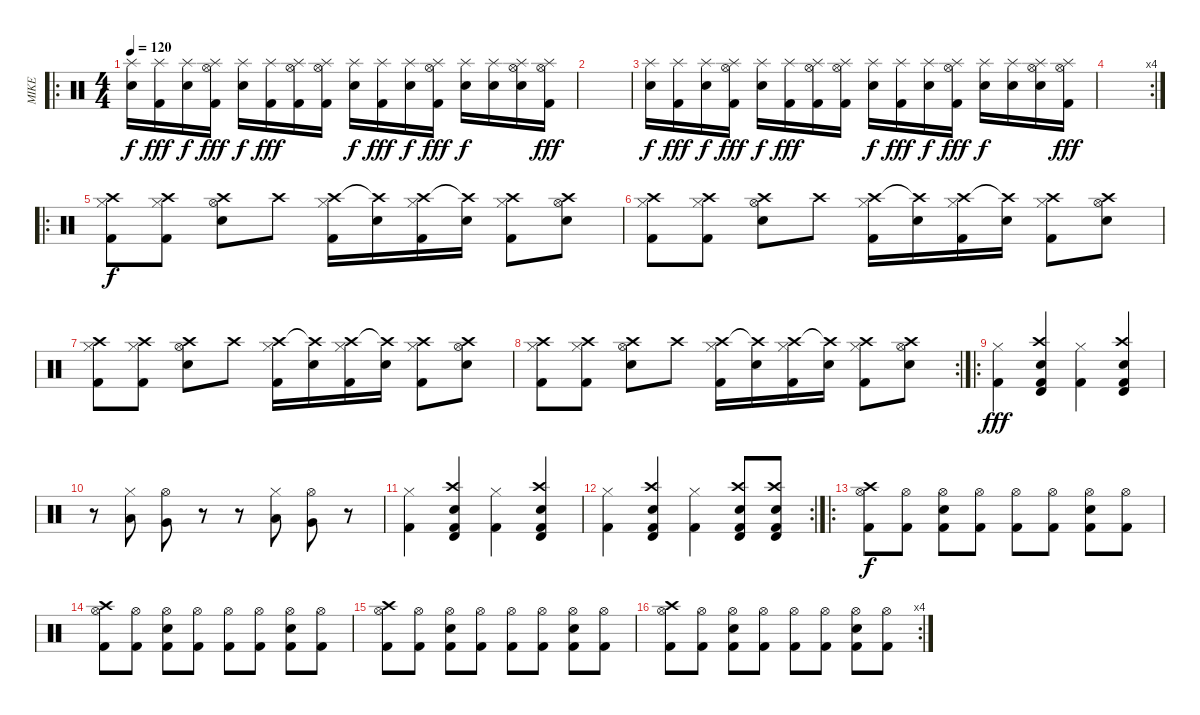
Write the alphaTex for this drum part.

\track ("MIKE" "MIKE") {instrument percussion}
\staff {score}
\articulation defaults
\ro
\ts (4 4)
\tempo 120
\clef neutral
\ks c
("Splash (hit)" "Snare (hit) 2").16{dy f} ("Splash (hit)" "Kick (hit) 2").16{dy fff} ("Splash (hit)" "Snare (hit) 2").16{dy f} ("Hi-Hat (open)" "Splash (hit)" "Kick (hit) 2").16{dy fff} ("Splash (hit)" "Snare (hit) 2").16{dy f} ("Splash (hit)" "Kick (hit) 2").16{dy fff} ("Hi-Hat (open)" "Splash (hit)" "Kick (hit) 2").16 ("Hi-Hat (open)" "Splash (hit)" "Kick (hit) 2").16 ("Splash (hit)" "Snare (hit) 2").16{dy f} ("Splash (hit)" "Kick (hit) 2").16{dy fff} ("Splash (hit)" "Snare (hit) 2").16{dy f} ("Hi-Hat (open)" "Splash (hit)" "Kick (hit) 2").16{dy fff} ("Splash (hit)" "Snare (hit) 2").16{dy f} ("Splash (hit)" "Snare (hit) 2").16 ("Hi-Hat (open)" "Splash (hit)" "Snare (hit) 2").16 ("Hi-Hat (open)" "Splash (hit)" "Kick (hit) 2").16{dy fff} |
|
("Splash (hit)" "Snare (hit) 2").16{dy f} ("Splash (hit)" "Kick (hit) 2").16{dy fff} ("Splash (hit)" "Snare (hit) 2").16{dy f} ("Hi-Hat (open)" "Splash (hit)" "Kick (hit) 2").16{dy fff} ("Splash (hit)" "Snare (hit) 2").16{dy f} ("Splash (hit)" "Kick (hit) 2").16{dy fff} ("Hi-Hat (open)" "Splash (hit)" "Kick (hit) 2").16 ("Hi-Hat (open)" "Splash (hit)" "Kick (hit) 2").16 ("Splash (hit)" "Snare (hit) 2").16{dy f} ("Splash (hit)" "Kick (hit) 2").16{dy fff} ("Splash (hit)" "Snare (hit) 2").16{dy f} ("Hi-Hat (open)" "Splash (hit)" "Kick (hit) 2").16{dy fff} ("Splash (hit)" "Snare (hit) 2").16{dy f} ("Splash (hit)" "Snare (hit) 2").16 ("Hi-Hat (open)" "Splash (hit)" "Snare (hit) 2").16 ("Hi-Hat (open)" "Splash (hit)" "Kick (hit) 2").16{dy fff} |
\rc 4
|
\ro
("Crash high (hit)" "Hi-Hat (closed)" "Kick (hit) 2").8{dy f} ("Crash high (hit)" "Hi-Hat (closed)" "Kick (hit) 2").8 ("Crash high (hit)" "Hi-Hat (open)" "Electric Snare (hit)").8 "Crash high (hit)".8 ("Crash high (hit)" "Hi-Hat (closed)" "Kick (hit) 2").16 ("Crash high (hit)"{t} "Snare (hit) 2").16 ("Crash high (hit)" "Hi-Hat (closed)" "Kick (hit) 2").16 ("Crash high (hit)"{t} "Snare (hit) 2").16 ("Crash high (hit)" "Hi-Hat (closed)" "Kick (hit) 2").8 ("Crash high (hit)" "Hi-Hat (open)" "Electric Snare (hit)").8 |
("Crash high (hit)" "Hi-Hat (closed)" "Kick (hit) 2").8 ("Crash high (hit)" "Hi-Hat (closed)" "Kick (hit) 2").8 ("Crash high (hit)" "Hi-Hat (open)" "Electric Snare (hit)").8 "Crash high (hit)".8 ("Crash high (hit)" "Hi-Hat (closed)" "Kick (hit) 2").16 ("Crash high (hit)"{t} "Snare (hit) 2").16 ("Crash high (hit)" "Hi-Hat (closed)" "Kick (hit) 2").16 ("Crash high (hit)"{t} "Snare (hit) 2").16 ("Crash high (hit)" "Hi-Hat (closed)" "Kick (hit) 2").8 ("Crash high (hit)" "Hi-Hat (open)" "Electric Snare (hit)").8 |
("Crash high (hit)" "Hi-Hat (closed)" "Kick (hit) 2").8 ("Crash high (hit)" "Hi-Hat (closed)" "Kick (hit) 2").8 ("Crash high (hit)" "Hi-Hat (open)" "Electric Snare (hit)").8 "Crash high (hit)".8 ("Crash high (hit)" "Hi-Hat (closed)" "Kick (hit) 2").16 ("Crash high (hit)"{t} "Snare (hit) 2").16 ("Crash high (hit)" "Hi-Hat (closed)" "Kick (hit) 2").16 ("Crash high (hit)"{t} "Snare (hit) 2").16 ("Crash high (hit)" "Hi-Hat (closed)" "Kick (hit) 2").8 ("Crash high (hit)" "Hi-Hat (open)" "Electric Snare (hit)").8 |
\rc 2
("Crash high (hit)" "Hi-Hat (closed)" "Kick (hit) 2").8 ("Crash high (hit)" "Hi-Hat (closed)" "Kick (hit) 2").8 ("Crash high (hit)" "Hi-Hat (open)" "Electric Snare (hit)").8 "Crash high (hit)".8 ("Crash high (hit)" "Hi-Hat (closed)" "Kick (hit) 2").16 ("Crash high (hit)"{t} "Snare (hit) 2").16 ("Crash high (hit)" "Hi-Hat (closed)" "Kick (hit) 2").16 ("Crash high (hit)"{t} "Snare (hit) 2").16 ("Crash high (hit)" "Hi-Hat (closed)" "Kick (hit) 2").8 ("Crash high (hit)" "Hi-Hat (open)" "Electric Snare (hit)").8 |
\ro
("Hi-Hat (closed)" "Kick (hit) 2").4{dy fff} ("Electric Snare (hit)" "Kick (hit) 2" "Crash high (hit)" "Timbale high (hit)").4 ("Hi-Hat (closed)" "Kick (hit) 2").4 ("Electric Snare (hit)" "Kick (hit) 2" "Crash high (hit)" "Timbale high (hit)").4 |
r.8 ("Low Floor Tom (hit)" "Hi-Hat (closed)").8 ("Very Low Tom (hit)" "Hi-Hat (open)").8 r.8 r.8 ("Low Floor Tom (hit)" "Hi-Hat (closed)").8 ("Very Low Tom (hit)" "Hi-Hat (open)").8 r.8 |
("Hi-Hat (closed)" "Kick (hit) 2").4 ("Electric Snare (hit)" "Kick (hit) 2" "Crash high (hit)" "Timbale high (hit)").4 ("Hi-Hat (closed)" "Kick (hit) 2").4 ("Electric Snare (hit)" "Kick (hit) 2" "Crash high (hit)" "Timbale high (hit)").4 |
\rc 2
("Hi-Hat (closed)" "Kick (hit) 2").4 ("Electric Snare (hit)" "Kick (hit) 2" "Crash high (hit)" "Timbale high (hit)").4 ("Hi-Hat (closed)" "Kick (hit) 2").4 ("Electric Snare (hit)" "Kick (hit) 2" "Crash high (hit)" "Timbale high (hit)").8 ("Electric Snare (hit)" "Kick (hit) 2" "Crash high (hit)" "Timbale high (hit)").8 |
\ro
("Crash high (hit)" "Hi-Hat (open)" "Kick (hit) 2").8{dy f} ("Hi-Hat (open)" "Kick (hit) 2").8 ("Hi-Hat (open)" "Snare (hit) 2" "Kick (hit) 2").8 ("Hi-Hat (open)" "Kick (hit) 2").8 ("Hi-Hat (open)" "Kick (hit) 2").8 ("Hi-Hat (open)" "Kick (hit) 2").8 ("Hi-Hat (open)" "Snare (hit) 2" "Kick (hit) 2").8 ("Hi-Hat (open)" "Kick (hit) 2").8 |
("Crash high (hit)" "Hi-Hat (open)" "Kick (hit) 2").8 ("Hi-Hat (open)" "Kick (hit) 2").8 ("Hi-Hat (open)" "Snare (hit) 2" "Kick (hit) 2").8 ("Hi-Hat (open)" "Kick (hit) 2").8 ("Hi-Hat (open)" "Kick (hit) 2").8 ("Hi-Hat (open)" "Kick (hit) 2").8 ("Hi-Hat (open)" "Snare (hit) 2" "Kick (hit) 2").8 ("Hi-Hat (open)" "Kick (hit) 2").8 |
("Crash high (hit)" "Hi-Hat (open)" "Kick (hit) 2").8 ("Hi-Hat (open)" "Kick (hit) 2").8 ("Hi-Hat (open)" "Snare (hit) 2" "Kick (hit) 2").8 ("Hi-Hat (open)" "Kick (hit) 2").8 ("Hi-Hat (open)" "Kick (hit) 2").8 ("Hi-Hat (open)" "Kick (hit) 2").8 ("Hi-Hat (open)" "Snare (hit) 2" "Kick (hit) 2").8 ("Hi-Hat (open)" "Kick (hit) 2").8 |
\rc 4
("Crash high (hit)" "Hi-Hat (open)" "Kick (hit) 2").8 ("Hi-Hat (open)" "Kick (hit) 2").8 ("Hi-Hat (open)" "Snare (hit) 2" "Kick (hit) 2").8 ("Hi-Hat (open)" "Kick (hit) 2").8 ("Hi-Hat (open)" "Kick (hit) 2").8 ("Hi-Hat (open)" "Kick (hit) 2").8 ("Hi-Hat (open)" "Snare (hit) 2" "Kick (hit) 2").8 ("Hi-Hat (open)" "Kick (hit) 2").8
